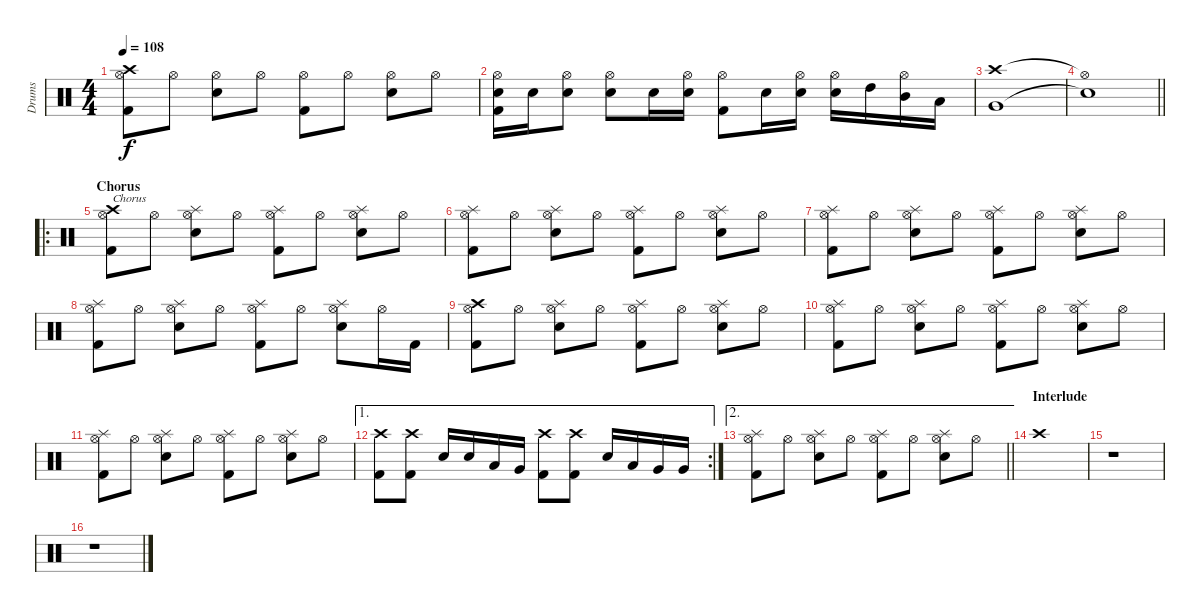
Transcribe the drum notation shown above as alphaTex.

\track ("Drums" "Drums") {instrument percussion}
\staff {score}
\articulation defaults
\ts (4 4)
\tempo 108
\clef neutral
\ks c
("Crash high (hit)" "Hi-Hat (open)" "Kick (hit) 2").8{dy f} "Hi-Hat (open)".8 ("Hi-Hat (open)" "Snare (hit) 2").8 "Hi-Hat (open)".8 ("Hi-Hat (open)" "Kick (hit) 2").8 "Hi-Hat (open)".8 ("Hi-Hat (open)" "Snare (hit) 2").8 "Hi-Hat (open)".8 |
("Hi-Hat (open)" "Snare (hit) 2" "Kick (hit) 2").16 "Snare (hit) 2".16 ("Hi-Hat (open)" "Snare (hit) 2").8 ("Hi-Hat (open)" "Snare (hit) 2").8 "Snare (hit) 2".16 ("Hi-Hat (open)" "Snare (hit) 2").16 ("Hi-Hat (open)" "Kick (hit) 2").8 "Snare (hit) 2".16 ("Hi-Hat (open)" "Snare (hit) 2").16 ("Hi-Hat (open)" "Snare (hit) 2").16 "High Tom (hit)".16 ("Hi-Hat (open)" "Mid Tom (hit)").16 "Low Tom (hit)".16 |
("Crash high (hit)" "Very Low Tom (hit)").1 |
\barLineRight lightlight
("Hi-Hat (open)"{t} "Snare (hit)"{t}).1 |
\ro
\section ("" "Chorus")
("Crash high (hit)" "Hi-Hat (open)" "Kick (hit) 2").8{txt "Chorus"} "Hi-Hat (open)".8 ("Splash (hit)" "Hi-Hat (open)" "Snare (hit) 2").8 "Hi-Hat (open)".8 ("Splash (hit)" "Hi-Hat (open)" "Kick (hit) 2").8 "Hi-Hat (open)".8 ("Splash (hit)" "Hi-Hat (open)" "Snare (hit) 2").8 "Hi-Hat (open)".8 |
("Splash (hit)" "Hi-Hat (open)" "Kick (hit) 2").8 "Hi-Hat (open)".8 ("Splash (hit)" "Hi-Hat (open)" "Snare (hit) 2").8 "Hi-Hat (open)".8 ("Splash (hit)" "Hi-Hat (open)" "Kick (hit) 2").8 "Hi-Hat (open)".8 ("Splash (hit)" "Hi-Hat (open)" "Snare (hit) 2").8 "Hi-Hat (open)".8 |
("Splash (hit)" "Hi-Hat (open)" "Kick (hit) 2").8 "Hi-Hat (open)".8 ("Splash (hit)" "Hi-Hat (open)" "Snare (hit) 2").8 "Hi-Hat (open)".8 ("Splash (hit)" "Hi-Hat (open)" "Kick (hit) 2").8 "Hi-Hat (open)".8 ("Splash (hit)" "Hi-Hat (open)" "Snare (hit) 2").8 "Hi-Hat (open)".8 |
("Splash (hit)" "Hi-Hat (open)" "Kick (hit) 2").8 "Hi-Hat (open)".8 ("Splash (hit)" "Hi-Hat (open)" "Snare (hit) 2").8 "Hi-Hat (open)".8 ("Splash (hit)" "Hi-Hat (open)" "Kick (hit) 2").8 "Hi-Hat (open)".8 ("Splash (hit)" "Hi-Hat (open)" "Snare (hit) 2").8 "Hi-Hat (open)".16 "Kick (hit) 2".16 |
("Crash high (hit)" "Hi-Hat (open)" "Kick (hit) 2").8 "Hi-Hat (open)".8 ("Splash (hit)" "Hi-Hat (open)" "Snare (hit) 2").8 "Hi-Hat (open)".8 ("Splash (hit)" "Hi-Hat (open)" "Kick (hit) 2").8 "Hi-Hat (open)".8 ("Splash (hit)" "Hi-Hat (open)" "Snare (hit) 2").8 "Hi-Hat (open)".8 |
("Splash (hit)" "Hi-Hat (open)" "Kick (hit) 2").8 "Hi-Hat (open)".8 ("Splash (hit)" "Hi-Hat (open)" "Snare (hit) 2").8 "Hi-Hat (open)".8 ("Splash (hit)" "Hi-Hat (open)" "Kick (hit) 2").8 "Hi-Hat (open)".8 ("Splash (hit)" "Hi-Hat (open)" "Snare (hit) 2").8 "Hi-Hat (open)".8 |
("Splash (hit)" "Hi-Hat (open)" "Kick (hit) 2").8 "Hi-Hat (open)".8 ("Splash (hit)" "Hi-Hat (open)" "Snare (hit) 2").8 "Hi-Hat (open)".8 ("Splash (hit)" "Hi-Hat (open)" "Kick (hit) 2").8 "Hi-Hat (open)".8 ("Splash (hit)" "Hi-Hat (open)" "Snare (hit) 2").8 "Hi-Hat (open)".8 |
\ae 1
\rc 2
("Crash high (hit)" "Kick (hit) 2").8 ("Crash high (hit)" "Kick (hit) 2").8 "Snare (hit) 2".16 "Snare (hit) 2".16 "Low Tom (hit)".16 "Very Low Tom (hit)".16 ("Crash high (hit)" "Kick (hit) 2").8 ("Crash high (hit)" "Kick (hit) 2").8 "Snare (hit) 2".16 "Low Tom (hit)".16 "Very Low Tom (hit)".16 "Very Low Tom (hit)".16 |
\ae 2
\barLineRight lightlight
("Splash (hit)" "Hi-Hat (open)" "Kick (hit) 2").8 "Hi-Hat (open)".8 ("Splash (hit)" "Hi-Hat (open)" "Snare (hit) 2").8 "Hi-Hat (open)".8 ("Splash (hit)" "Hi-Hat (open)" "Kick (hit) 2").8 "Hi-Hat (open)".8 ("Splash (hit)" "Hi-Hat (open)" "Snare (hit) 2").8 "Hi-Hat (open)".8 |
\section ("" "Interlude")
"Crash high (hit)".1 |
r.1 |
r.1
